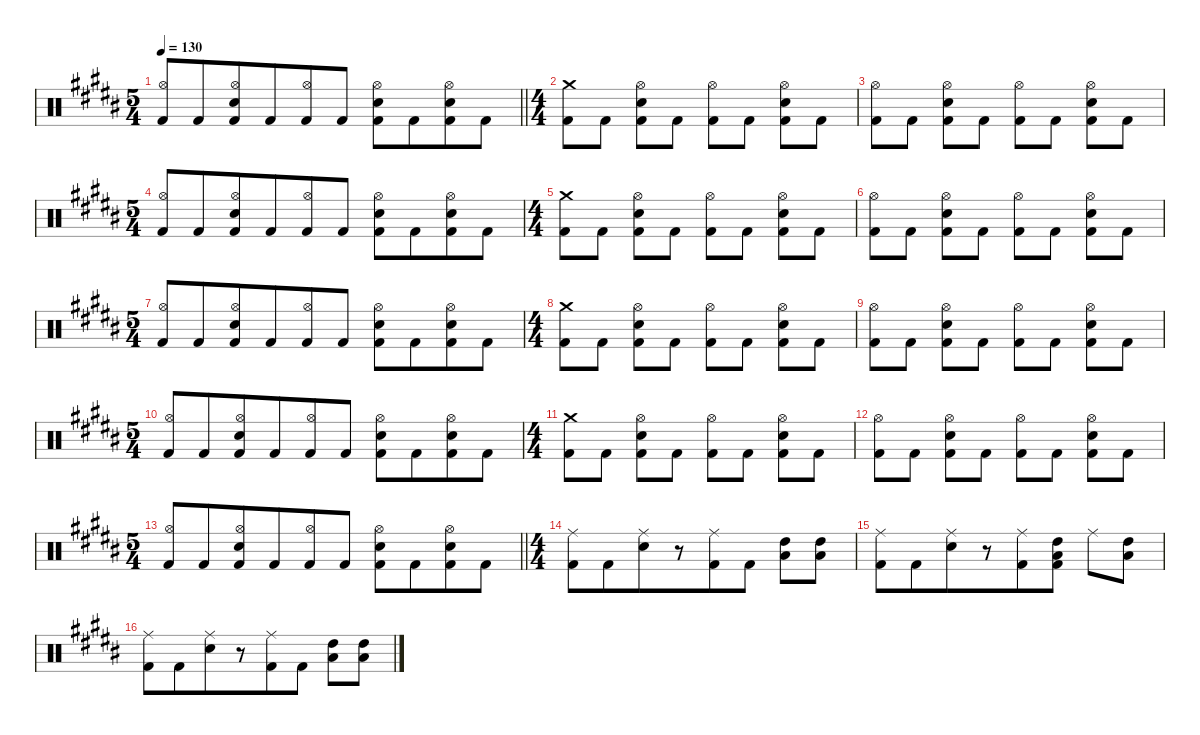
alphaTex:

\defaultSystemsLayout 4
\hideDynamics
\bracketExtendMode nobrackets
\singleTrackTrackNamePolicy hidden
\multiTrackTrackNamePolicy hidden
\firstSystemTrackNameMode fullname
\otherSystemsTrackNameOrientation horizontal
\track ("DRUMS" "drm.") {instrument percussion}
\staff {score}
\articulation defaults
\ts (5 4)
\beaming (8 6 4)
\tempo 130
\clef neutral
\barLineRight lightlight
\ks b
("Hi-Hat (open)"{acc bb} "Kick (hit) 2"{acc bb}).8{dy mf beam Up} "Kick (hit) 2"{acc bb}.8{dy ff beam Up} ("Hi-Hat (open)"{acc bb} "Snare (hit) 2"{acc bb} "Kick (hit) 2"{acc bb}).8{dy mf beam Up} "Kick (hit) 2"{acc bb}.8{dy ff beam Up} ("Hi-Hat (open)"{acc bb} "Kick (hit) 2"{acc bb}).8{dy mf beam Up} "Kick (hit) 2"{acc bb}.8{dy ff beam Up} ("Hi-Hat (open)"{acc bb} "Snare (hit) 2"{acc bb} "Kick (hit) 2"{acc bb}).8{beam Down} "Kick (hit) 2"{acc bb}.8{dy f beam Down} ("Hi-Hat (open)"{acc bb} "Snare (hit) 2"{acc bb} "Kick (hit) 2"{acc bb}).8{beam Down} "Kick (hit) 2"{acc bb}.8{dy ff beam Down} |
\ts (4 4)
\beaming (8 2 2 2 2)
("Crash medium (hit)"{acc bb} "Kick (hit) 2"{acc bb}).8{beam Down} "Kick (hit) 2"{acc bb}.8{beam Down} ("Hi-Hat (open)"{acc bb} "Snare (hit) 2"{acc bb} "Kick (hit) 2"{acc bb}).8{dy mf beam Down} "Kick (hit) 2"{acc bb}.8{dy ff beam Down} ("Hi-Hat (open)"{acc bb} "Kick (hit) 2"{acc bb}).8{dy mf beam Down} "Kick (hit) 2"{acc bb}.8{dy ff beam Down} ("Hi-Hat (open)"{acc bb} "Snare (hit) 2"{acc bb} "Kick (hit) 2"{acc bb}).8{dy mf beam Down} "Kick (hit) 2"{acc bb}.8{dy ff beam Down} |
("Hi-Hat (open)"{acc bb} "Kick (hit) 2"{acc bb}).8{dy mf beam Down} "Kick (hit) 2"{acc bb}.8{dy ff beam Down} ("Hi-Hat (open)"{acc bb} "Snare (hit) 2"{acc bb} "Kick (hit) 2"{acc bb}).8{dy mf beam Down} "Kick (hit) 2"{acc bb}.8{dy ff beam Down} ("Hi-Hat (open)"{acc bb} "Kick (hit) 2"{acc bb}).8{dy mf beam Down} "Kick (hit) 2"{acc bb}.8{dy ff beam Down} ("Hi-Hat (open)"{acc bb} "Snare (hit) 2"{acc bb} "Kick (hit) 2"{acc bb}).8{dy mf beam Down} "Kick (hit) 2"{acc bb}.8{dy ff beam Down} |
\ts (5 4)
\beaming (8 6 4)
("Hi-Hat (open)"{acc bb} "Kick (hit) 2"{acc bb}).8{dy mf beam Up} "Kick (hit) 2"{acc bb}.8{dy ff beam Up} ("Hi-Hat (open)"{acc bb} "Snare (hit) 2"{acc bb} "Kick (hit) 2"{acc bb}).8{dy mf beam Up} "Kick (hit) 2"{acc bb}.8{dy ff beam Up} ("Hi-Hat (open)"{acc bb} "Kick (hit) 2"{acc bb}).8{dy mf beam Up} "Kick (hit) 2"{acc bb}.8{dy ff beam Up} ("Hi-Hat (open)"{acc bb} "Snare (hit) 2"{acc bb} "Kick (hit) 2"{acc bb}).8{beam Down} "Kick (hit) 2"{acc bb}.8{dy f beam Down} ("Hi-Hat (open)"{acc bb} "Snare (hit) 2"{acc bb} "Kick (hit) 2"{acc bb}).8{beam Down} "Kick (hit) 2"{acc bb}.8{dy ff beam Down} |
\ts (4 4)
\beaming (8 2 2 2 2)
("Crash medium (hit)"{acc bb} "Kick (hit) 2"{acc bb}).8{beam Down} "Kick (hit) 2"{acc bb}.8{beam Down} ("Hi-Hat (open)"{acc bb} "Snare (hit) 2"{acc bb} "Kick (hit) 2"{acc bb}).8{dy mf beam Down} "Kick (hit) 2"{acc bb}.8{dy ff beam Down} ("Hi-Hat (open)"{acc bb} "Kick (hit) 2"{acc bb}).8{dy mf beam Down} "Kick (hit) 2"{acc bb}.8{dy ff beam Down} ("Hi-Hat (open)"{acc bb} "Snare (hit) 2"{acc bb} "Kick (hit) 2"{acc bb}).8{dy mf beam Down} "Kick (hit) 2"{acc bb}.8{dy ff beam Down} |
("Hi-Hat (open)"{acc bb} "Kick (hit) 2"{acc bb}).8{dy mf beam Down} "Kick (hit) 2"{acc bb}.8{dy ff beam Down} ("Hi-Hat (open)"{acc bb} "Snare (hit) 2"{acc bb} "Kick (hit) 2"{acc bb}).8{dy mf beam Down} "Kick (hit) 2"{acc bb}.8{dy ff beam Down} ("Hi-Hat (open)"{acc bb} "Kick (hit) 2"{acc bb}).8{dy mf beam Down} "Kick (hit) 2"{acc bb}.8{dy ff beam Down} ("Hi-Hat (open)"{acc bb} "Snare (hit) 2"{acc bb} "Kick (hit) 2"{acc bb}).8{dy mf beam Down} "Kick (hit) 2"{acc bb}.8{dy ff beam Down} |
\ts (5 4)
\beaming (8 6 4)
("Hi-Hat (open)"{acc bb} "Kick (hit) 2"{acc bb}).8{dy mf beam Up} "Kick (hit) 2"{acc bb}.8{dy ff beam Up} ("Hi-Hat (open)"{acc bb} "Snare (hit) 2"{acc bb} "Kick (hit) 2"{acc bb}).8{dy mf beam Up} "Kick (hit) 2"{acc bb}.8{dy ff beam Up} ("Hi-Hat (open)"{acc bb} "Kick (hit) 2"{acc bb}).8{dy mf beam Up} "Kick (hit) 2"{acc bb}.8{dy ff beam Up} ("Hi-Hat (open)"{acc bb} "Snare (hit) 2"{acc bb} "Kick (hit) 2"{acc bb}).8{beam Down} "Kick (hit) 2"{acc bb}.8{dy f beam Down} ("Hi-Hat (open)"{acc bb} "Snare (hit) 2"{acc bb} "Kick (hit) 2"{acc bb}).8{beam Down} "Kick (hit) 2"{acc bb}.8{dy ff beam Down} |
\ts (4 4)
\beaming (8 2 2 2 2)
("Crash medium (hit)"{acc bb} "Kick (hit) 2"{acc bb}).8{beam Down} "Kick (hit) 2"{acc bb}.8{beam Down} ("Hi-Hat (open)"{acc bb} "Snare (hit) 2"{acc bb} "Kick (hit) 2"{acc bb}).8{dy mf beam Down} "Kick (hit) 2"{acc bb}.8{dy ff beam Down} ("Hi-Hat (open)"{acc bb} "Kick (hit) 2"{acc bb}).8{dy mf beam Down} "Kick (hit) 2"{acc bb}.8{dy ff beam Down} ("Hi-Hat (open)"{acc bb} "Snare (hit) 2"{acc bb} "Kick (hit) 2"{acc bb}).8{dy mf beam Down} "Kick (hit) 2"{acc bb}.8{dy ff beam Down} |
("Hi-Hat (open)"{acc bb} "Kick (hit) 2"{acc bb}).8{dy mf beam Down} "Kick (hit) 2"{acc bb}.8{dy ff beam Down} ("Hi-Hat (open)"{acc bb} "Snare (hit) 2"{acc bb} "Kick (hit) 2"{acc bb}).8{dy mf beam Down} "Kick (hit) 2"{acc bb}.8{dy ff beam Down} ("Hi-Hat (open)"{acc bb} "Kick (hit) 2"{acc bb}).8{dy mf beam Down} "Kick (hit) 2"{acc bb}.8{dy ff beam Down} ("Hi-Hat (open)"{acc bb} "Snare (hit) 2"{acc bb} "Kick (hit) 2"{acc bb}).8{dy mf beam Down} "Kick (hit) 2"{acc bb}.8{dy ff beam Down} |
\ts (5 4)
\beaming (8 6 4)
("Hi-Hat (open)"{acc bb} "Kick (hit) 2"{acc bb}).8{dy mf beam Up} "Kick (hit) 2"{acc bb}.8{dy ff beam Up} ("Hi-Hat (open)"{acc bb} "Snare (hit) 2"{acc bb} "Kick (hit) 2"{acc bb}).8{dy mf beam Up} "Kick (hit) 2"{acc bb}.8{dy ff beam Up} ("Hi-Hat (open)"{acc bb} "Kick (hit) 2"{acc bb}).8{dy mf beam Up} "Kick (hit) 2"{acc bb}.8{dy ff beam Up} ("Hi-Hat (open)"{acc bb} "Snare (hit) 2"{acc bb} "Kick (hit) 2"{acc bb}).8{beam Down} "Kick (hit) 2"{acc bb}.8{dy f beam Down} ("Hi-Hat (open)"{acc bb} "Snare (hit) 2"{acc bb} "Kick (hit) 2"{acc bb}).8{beam Down} "Kick (hit) 2"{acc bb}.8{dy ff beam Down} |
\ts (4 4)
\beaming (8 2 2 2 2)
("Crash medium (hit)"{acc bb} "Kick (hit) 2"{acc bb}).8{beam Down} "Kick (hit) 2"{acc bb}.8{beam Down} ("Hi-Hat (open)"{acc bb} "Snare (hit) 2"{acc bb} "Kick (hit) 2"{acc bb}).8{dy mf beam Down} "Kick (hit) 2"{acc bb}.8{dy ff beam Down} ("Hi-Hat (open)"{acc bb} "Kick (hit) 2"{acc bb}).8{dy mf beam Down} "Kick (hit) 2"{acc bb}.8{dy ff beam Down} ("Hi-Hat (open)"{acc bb} "Snare (hit) 2"{acc bb} "Kick (hit) 2"{acc bb}).8{dy mf beam Down} "Kick (hit) 2"{acc bb}.8{dy ff beam Down} |
("Hi-Hat (open)"{acc bb} "Kick (hit) 2"{acc bb}).8{dy mf beam Down} "Kick (hit) 2"{acc bb}.8{dy ff beam Down} ("Hi-Hat (open)"{acc bb} "Snare (hit) 2"{acc bb} "Kick (hit) 2"{acc bb}).8{dy mf beam Down} "Kick (hit) 2"{acc bb}.8{dy ff beam Down} ("Hi-Hat (open)"{acc bb} "Kick (hit) 2"{acc bb}).8{dy mf beam Down} "Kick (hit) 2"{acc bb}.8{dy ff beam Down} ("Hi-Hat (open)"{acc bb} "Snare (hit) 2"{acc bb} "Kick (hit) 2"{acc bb}).8{dy mf beam Down} "Kick (hit) 2"{acc bb}.8{dy ff beam Down} |
\ts (5 4)
\beaming (8 6 4)
\barLineRight lightlight
("Hi-Hat (open)"{acc bb} "Kick (hit) 2"{acc bb}).8{dy mf beam Up} "Kick (hit) 2"{acc bb}.8{dy ff beam Up} ("Hi-Hat (open)"{acc bb} "Snare (hit) 2"{acc bb} "Kick (hit) 2"{acc bb}).8{dy mf beam Up} "Kick (hit) 2"{acc bb}.8{dy ff beam Up} ("Hi-Hat (open)"{acc bb} "Kick (hit) 2"{acc bb}).8{dy mf beam Up} "Kick (hit) 2"{acc bb}.8{dy ff beam Up} ("Hi-Hat (open)"{acc bb} "Snare (hit) 2"{acc bb} "Kick (hit) 2"{acc bb}).8{beam Down} "Kick (hit) 2"{acc bb}.8{dy f beam Down} ("Hi-Hat (open)"{acc bb} "Snare (hit) 2"{acc bb} "Kick (hit) 2"{acc bb}).8{beam Down} "Kick (hit) 2"{acc bb}.8{dy ff beam Down} |
\ts (4 4)
\beaming (8 6 4)
("Ride (middle)"{acc bb} "Kick (hit) 2"{acc bb}).8{beam Down} "Kick (hit) 2"{acc bb}.8{beam Down} ("Ride (middle)"{acc bb} "Snare (hit) 2"{acc bb}).8{beam Down} r.8{beam Down} ("Ride (middle)"{acc bb} "Kick (hit) 2"{acc bb}).8{beam Down} "Kick (hit) 2"{acc bb}.8{beam Down} ("Low Tom (hit)"{acc bb} "High Tom (hit)"{acc bb}).8{beam Down} ("Low Tom (hit)"{acc bb} "High Tom (hit)"{acc bb}).8{beam Down} |
("Ride (middle)"{acc bb} "Kick (hit) 2"{acc bb}).8{beam Down} "Kick (hit) 2"{acc bb}.8{beam Down} ("Ride (middle)"{acc bb} "Snare (hit) 2"{acc bb}).8{beam Down} r.8{beam Down} ("Ride (middle)"{acc bb} "Kick (hit) 2"{acc bb}).8{beam Down} ("Low Tom (hit)"{acc bb} "High Tom (hit)"{acc bb} "Kick (hit) 2"{acc bb}).8{beam Down} "Ride (middle)"{acc bb}.8{beam Down} ("Low Tom (hit)"{acc bb} "High Tom (hit)"{acc bb}).8{beam Down} |
("Ride (middle)"{acc bb} "Kick (hit) 2"{acc bb}).8{beam Down} "Kick (hit) 2"{acc bb}.8{beam Down} ("Ride (middle)"{acc bb} "Snare (hit) 2"{acc bb}).8{beam Down} r.8{beam Down} ("Ride (middle)"{acc bb} "Kick (hit) 2"{acc bb}).8{beam Down} "Kick (hit) 2"{acc bb}.8{beam Down} ("Low Tom (hit)"{acc bb} "High Tom (hit)"{acc bb}).8{beam Down} ("Low Tom (hit)"{acc bb} "High Tom (hit)"{acc bb}).8{beam Down}
